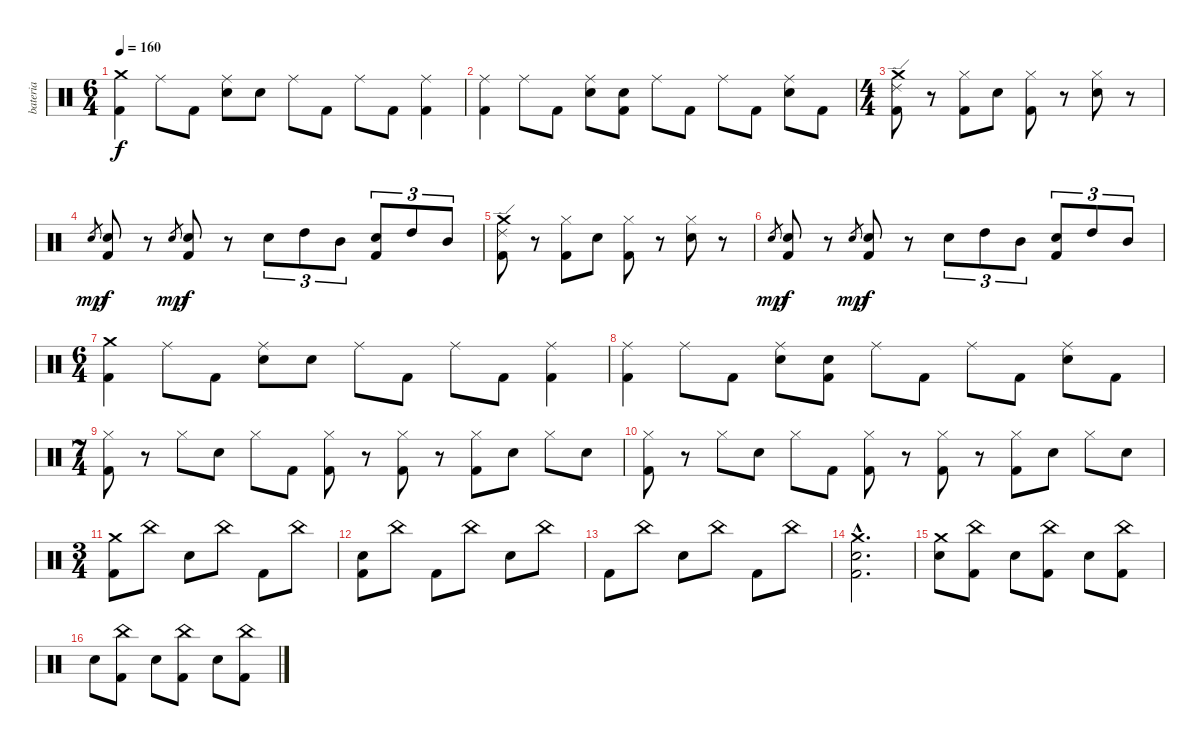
\track ("bateria" "bateria") {instrument percussion}
\staff {score}
\articulation defaults
\ts (6 4)
\tempo 160
\clef neutral
\ks c
("Crash medium (hit)" "Kick (hit) 2").4{dy f} "Ride (middle)".8 "Kick (hit) 2".8 ("Ride (middle)" "Electric Snare (hit)").8 "Electric Snare (hit)".8 "Ride (middle)".8 "Kick (hit) 2".8 "Ride (middle)".8 "Kick (hit) 2".8 ("Ride (middle)" "Kick (hit) 2").4 |
("Ride (middle)" "Kick (hit) 2").4 "Ride (middle)".8 "Kick (hit) 2".8 ("Ride (middle)" "Electric Snare (hit)").8 ("Electric Snare (hit)" "Kick (hit) 2").8 "Ride (middle)".8 "Kick (hit) 2".8 "Ride (middle)".8 "Kick (hit) 2".8 ("Ride (middle)" "Electric Snare (hit)").8 "Kick (hit) 2".8 |
\ts (4 4)
("Crash medium (hit)" "Ride (edge) 2" "Kick (hit) 2").8 r.8 ("Hi-Hat (closed)" "Kick (hit) 2").8 "Electric Snare (hit)".8 ("Hi-Hat (closed)" "Kick (hit) 2").8 r.8 ("Hi-Hat (closed)" "Electric Snare (hit)").8 r.8 |
"Electric Snare (hit)".8{gr dy mp} ("Electric Snare (hit)" "Kick (hit) 2").8{dy f} r.8 "Electric Snare (hit)".8{gr dy mp} ("Electric Snare (hit)" "Kick (hit) 2").8{dy f} r.8 "Electric Snare (hit)".8{tu (3 2)} "High Tom (hit)".8{tu (3 2)} "Mid Tom (hit)".8{tu (3 2)} ("Electric Snare (hit)" "Kick (hit) 2").8{tu (3 2)} "High Tom (hit)".8{tu (3 2)} "Mid Tom (hit)".8{tu (3 2)} |
("Crash medium (hit)" "Ride (edge) 2" "Kick (hit) 2").8 r.8 ("Hi-Hat (closed)" "Kick (hit) 2").8 "Electric Snare (hit)".8 ("Hi-Hat (closed)" "Kick (hit) 2").8 r.8 ("Hi-Hat (closed)" "Electric Snare (hit)").8 r.8 |
"Electric Snare (hit)".8{gr dy mp} ("Electric Snare (hit)" "Kick (hit) 2").8{dy f} r.8 "Electric Snare (hit)".8{gr dy mp} ("Electric Snare (hit)" "Kick (hit) 2").8{dy f} r.8 "Electric Snare (hit)".8{tu (3 2)} "High Tom (hit)".8{tu (3 2)} "Mid Tom (hit)".8{tu (3 2)} ("Electric Snare (hit)" "Kick (hit) 2").8{tu (3 2)} "High Tom (hit)".8{tu (3 2)} "Mid Tom (hit)".8{tu (3 2)} |
\ts (6 4)
("Crash medium (hit)" "Kick (hit) 2").4 "Ride (middle)".8 "Kick (hit) 2".8 ("Ride (middle)" "Electric Snare (hit)").8 "Electric Snare (hit)".8 "Ride (middle)".8 "Kick (hit) 2".8 "Ride (middle)".8 "Kick (hit) 2".8 ("Ride (middle)" "Kick (hit) 2").4 |
("Ride (middle)" "Kick (hit) 2").4 "Ride (middle)".8 "Kick (hit) 2".8 ("Ride (middle)" "Electric Snare (hit)").8 ("Electric Snare (hit)" "Kick (hit) 2").8 "Ride (middle)".8 "Kick (hit) 2".8 "Ride (middle)".8 "Kick (hit) 2".8 ("Ride (middle)" "Electric Snare (hit)").8 "Kick (hit) 2".8 |
\ts (7 4)
("Hi-Hat (closed)" "Kick (hit) 2").8 r.8 "Hi-Hat (closed)".8 "Electric Snare (hit)".8 "Hi-Hat (closed)".8 "Kick (hit) 2".8 ("Hi-Hat (closed)" "Kick (hit) 2").8 r.8 ("Hi-Hat (closed)" "Kick (hit) 2").8 r.8 ("Hi-Hat (closed)" "Kick (hit) 2").8 "Electric Snare (hit)".8 "Hi-Hat (closed)".8 "Electric Snare (hit)".8 |
("Hi-Hat (closed)" "Kick (hit) 2").8 r.8 "Hi-Hat (closed)".8 "Electric Snare (hit)".8 "Hi-Hat (closed)".8 "Kick (hit) 2".8 ("Hi-Hat (closed)" "Kick (hit) 2").8 r.8 ("Hi-Hat (closed)" "Kick (hit) 2").8 r.8 ("Hi-Hat (closed)" "Kick (hit) 2").8 "Electric Snare (hit)".8 "Hi-Hat (closed)".8 "Electric Snare (hit)".8 |
\ts (3 4)
("Crash medium (hit)" "Kick (hit) 2").8 "China (hit)".8 "Electric Snare (hit)".8 "China (hit)".8 "Kick (hit) 2".8 "China (hit)".8 |
("Electric Snare (hit)" "Kick (hit) 2").8 "China (hit)".8 "Kick (hit) 2".8 "China (hit)".8 "Electric Snare (hit)".8 "China (hit)".8 |
"Kick (hit) 2".8 "China (hit)".8 "Electric Snare (hit)".8 "China (hit)".8 "Kick (hit) 2".8 "China (hit)".8 |
("Crash medium (hit)"{hac} "Electric Snare (hit)"{hac} "Kick (hit) 2"{hac}).2{d} |
("Crash medium (hit)" "Electric Snare (hit)").8 ("China (hit)" "Kick (hit) 2").8 "Electric Snare (hit)".8 ("China (hit)" "Kick (hit) 2").8 "Electric Snare (hit)".8 ("China (hit)" "Kick (hit) 2").8 |
"Electric Snare (hit)".8 ("China (hit)" "Kick (hit) 2").8 "Electric Snare (hit)".8 ("China (hit)" "Kick (hit) 2").8 "Electric Snare (hit)".8 ("China (hit)" "Kick (hit) 2").8
